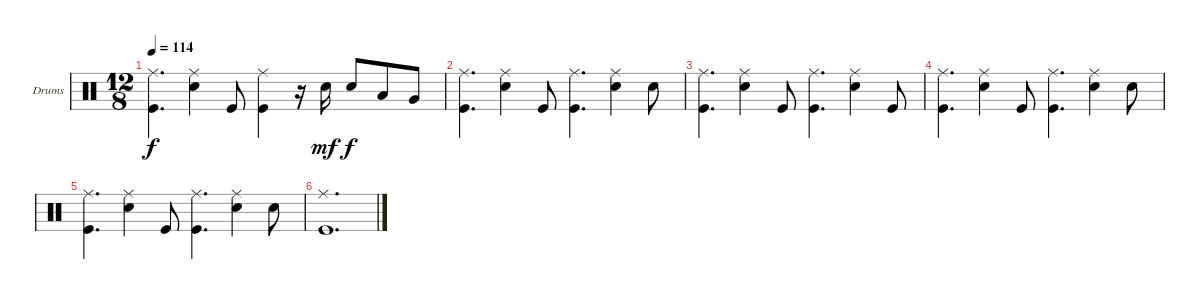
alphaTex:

\defaultSystemsLayout 4
\bracketExtendMode groupsimilarinstruments
\firstSystemTrackNameOrientation horizontal
\otherSystemsTrackNameOrientation horizontal
\track ("Drumkit" "Drums") {instrument percussion}
\staff {score}
\articulation defaults
\ts (12 8)
\tempo 114
\clef neutral
\ks c
("Ride (middle)" "Kick (hit)").4{d dy f} ("Ride (middle)" "Snare (hit) 2").4 "Kick (hit)".8 ("Ride (middle)" "Kick (hit)").4 r.16 "Snare (hit) 2".16{dy mf} "Snare (hit) 2".8{dy f} "Low Tom (hit)".8 "Very Low Tom (hit)".8 |
("Ride (middle)" "Kick (hit)").4{d} ("Ride (middle)" "Snare (hit) 2").4 "Kick (hit)".8 ("Ride (middle)" "Kick (hit)").4{d} ("Ride (middle)" "Snare (hit) 2").4 "Snare (hit) 2".8 |
("Ride (middle)" "Kick (hit)").4{d} ("Ride (middle)" "Snare (hit) 2").4 "Kick (hit)".8 ("Ride (middle)" "Kick (hit)").4{d} ("Ride (middle)" "Snare (hit) 2").4 "Kick (hit)".8 |
("Ride (middle)" "Kick (hit)").4{d} ("Ride (middle)" "Snare (hit) 2").4 "Kick (hit)".8 ("Ride (middle)" "Kick (hit)").4{d} ("Ride (middle)" "Snare (hit) 2").4 "Snare (hit) 2".8 |
("Ride (middle)" "Kick (hit)").4{d} ("Ride (middle)" "Snare (hit) 2").4 "Kick (hit)".8 ("Ride (middle)" "Kick (hit)").4{d} ("Ride (middle)" "Snare (hit) 2").4 "Snare (hit) 2".8 |
("Ride (middle)" "Kick (hit)").1{d}
